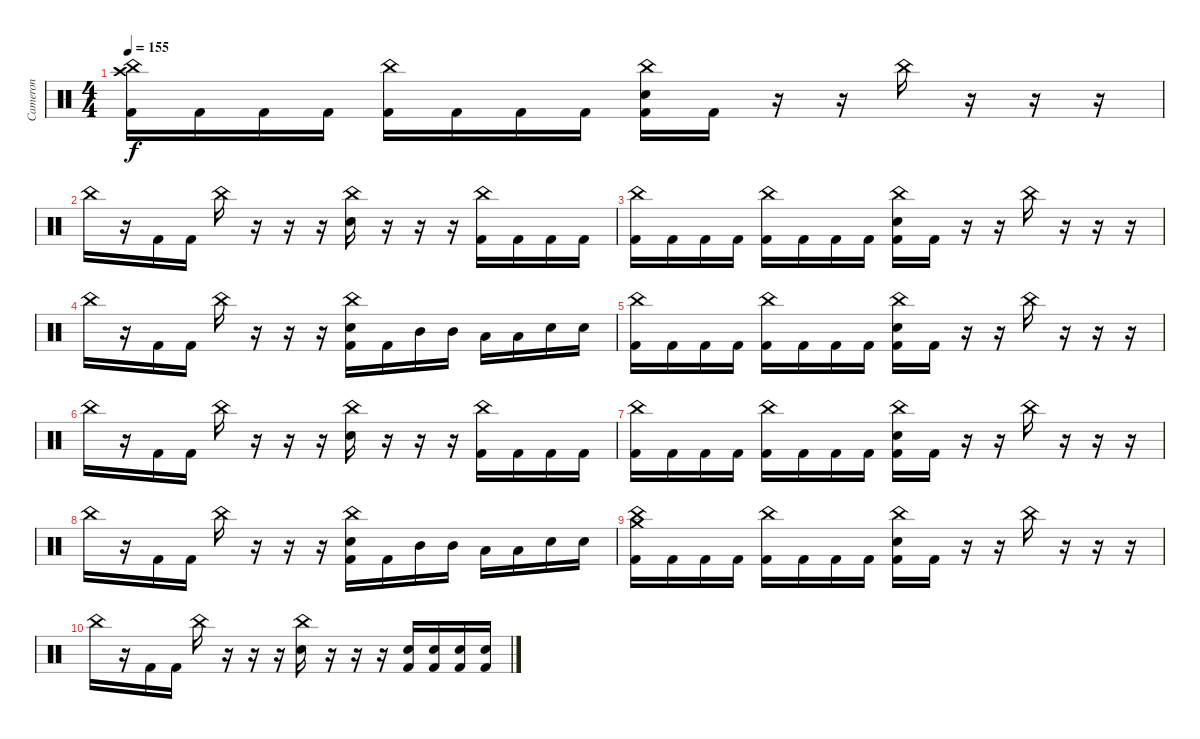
\track ("Cameron" "Cameron") {instrument percussion}
\staff {score}
\articulation defaults
\ts (4 4)
\tempo 155
\clef neutral
\ks c
("Crash high (hit)" "China (hit)" "Kick (hit) 2").16{dy f} "Kick (hit) 2".16 "Kick (hit) 2".16 "Kick (hit) 2".16 ("China (hit)" "Kick (hit) 2").16 "Kick (hit) 2".16 "Kick (hit) 2".16 "Kick (hit) 2".16 ("China (hit)" "Snare (hit) 2" "Kick (hit) 2").16 "Kick (hit) 2".16 r.16 r.16 "China (hit)".16 r.16 r.16 r.16 |
"China (hit)".16 r.16 "Kick (hit) 2".16 "Kick (hit) 2".16 "China (hit)".16 r.16 r.16 r.16 ("China (hit)" "Snare (hit) 2").16 r.16 r.16 r.16 ("China (hit)" "Kick (hit) 2").16 "Kick (hit) 2".16 "Kick (hit) 2".16 "Kick (hit) 2".16 |
("China (hit)" "Kick (hit) 2").16 "Kick (hit) 2".16 "Kick (hit) 2".16 "Kick (hit) 2".16 ("China (hit)" "Kick (hit) 2").16 "Kick (hit) 2".16 "Kick (hit) 2".16 "Kick (hit) 2".16 ("China (hit)" "Snare (hit) 2" "Kick (hit) 2").16 "Kick (hit) 2".16 r.16 r.16 "China (hit)".16 r.16 r.16 r.16 |
"China (hit)".16 r.16 "Kick (hit) 2".16 "Kick (hit) 2".16 "China (hit)".16 r.16 r.16 r.16 ("China (hit)" "Snare (hit) 2" "Kick (hit) 2").16 "Kick (hit) 2".16 "Mid Tom (hit)".16 "Mid Tom (hit)".16 "Low Tom (hit)".16 "Low Tom (hit)".16 "Snare (hit) 2".16 "Snare (hit) 2".16 |
("China (hit)" "Kick (hit) 2").16 "Kick (hit) 2".16 "Kick (hit) 2".16 "Kick (hit) 2".16 ("China (hit)" "Kick (hit) 2").16 "Kick (hit) 2".16 "Kick (hit) 2".16 "Kick (hit) 2".16 ("China (hit)" "Snare (hit) 2" "Kick (hit) 2").16 "Kick (hit) 2".16 r.16 r.16 "China (hit)".16 r.16 r.16 r.16 |
"China (hit)".16 r.16 "Kick (hit) 2".16 "Kick (hit) 2".16 "China (hit)".16 r.16 r.16 r.16 ("China (hit)" "Snare (hit) 2").16 r.16 r.16 r.16 ("China (hit)" "Kick (hit) 2").16 "Kick (hit) 2".16 "Kick (hit) 2".16 "Kick (hit) 2".16 |
("China (hit)" "Kick (hit) 2").16 "Kick (hit) 2".16 "Kick (hit) 2".16 "Kick (hit) 2".16 ("China (hit)" "Kick (hit) 2").16 "Kick (hit) 2".16 "Kick (hit) 2".16 "Kick (hit) 2".16 ("China (hit)" "Snare (hit) 2" "Kick (hit) 2").16 "Kick (hit) 2".16 r.16 r.16 "China (hit)".16 r.16 r.16 r.16 |
"China (hit)".16 r.16 "Kick (hit) 2".16 "Kick (hit) 2".16 "China (hit)".16 r.16 r.16 r.16 ("China (hit)" "Snare (hit) 2" "Kick (hit) 2").16 "Kick (hit) 2".16 "Mid Tom (hit)".16 "Mid Tom (hit)".16 "Low Tom (hit)".16 "Low Tom (hit)".16 "Snare (hit) 2".16 "Snare (hit) 2".16 |
("Crash medium (hit)" "China (hit)" "Kick (hit) 2").16 "Kick (hit) 2".16 "Kick (hit) 2".16 "Kick (hit) 2".16 ("China (hit)" "Kick (hit) 2").16 "Kick (hit) 2".16 "Kick (hit) 2".16 "Kick (hit) 2".16 ("China (hit)" "Snare (hit) 2" "Kick (hit) 2").16 "Kick (hit) 2".16 r.16 r.16 "China (hit)".16 r.16 r.16 r.16 |
"China (hit)".16 r.16 "Kick (hit) 2".16 "Kick (hit) 2".16 "China (hit)".16 r.16 r.16 r.16 ("China (hit)" "Snare (hit) 2").16 r.16 r.16 r.16 ("Snare (hit) 2" "Kick (hit) 2").16 ("Snare (hit) 2" "Kick (hit) 2").16 ("Snare (hit) 2" "Kick (hit) 2").16 ("Snare (hit) 2" "Kick (hit) 2").16
